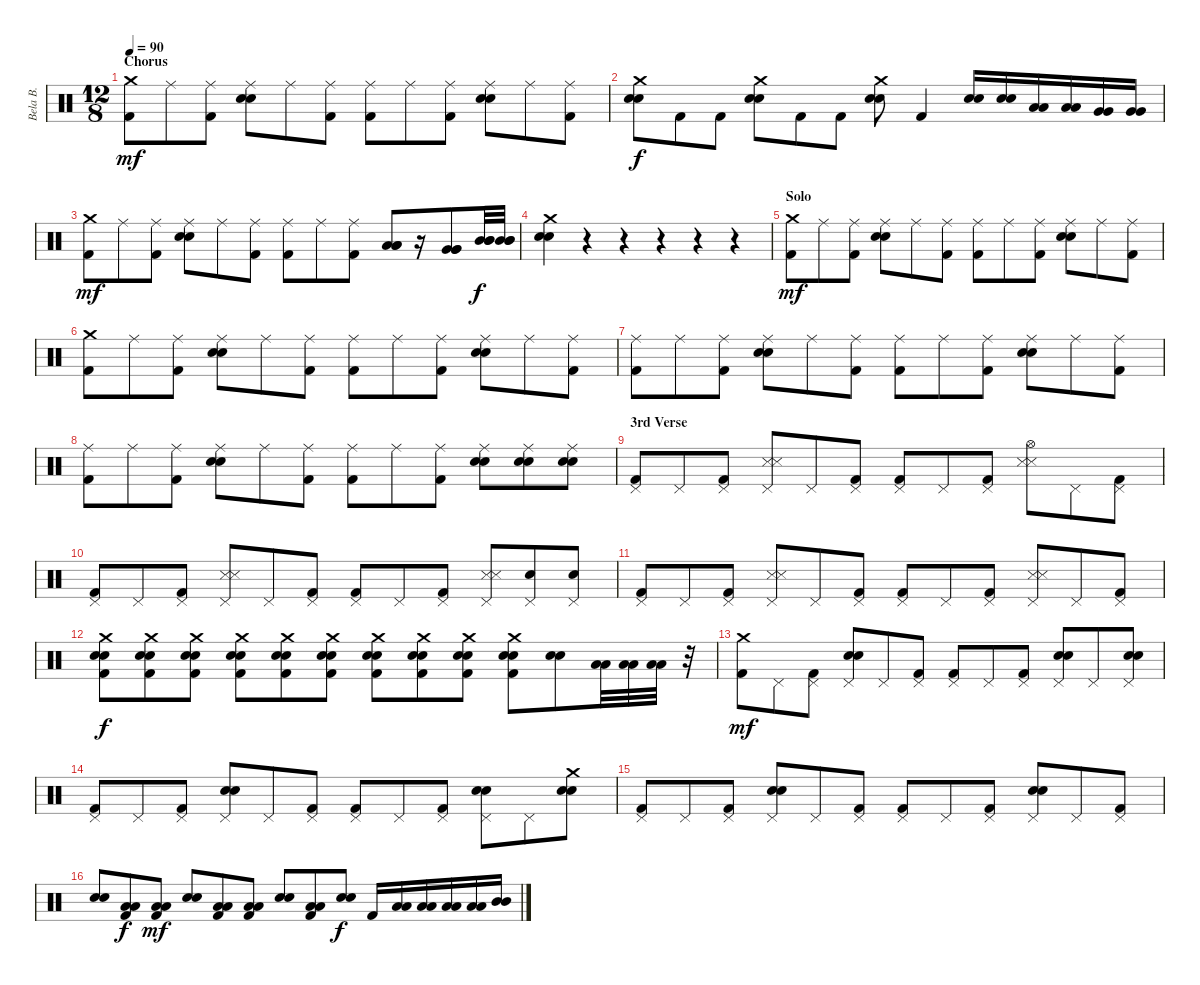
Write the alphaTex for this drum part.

\track ("Bela B." "Bela B.") {instrument percussion}
\staff {score}
\articulation defaults
\ts (12 8)
\section ("" "Chorus")
\tempo 90
\clef neutral
\ks c
("Crash medium (hit)" "Kick (hit) 2").8{dy mf} "Ride (middle)".8 ("Ride (middle)" "Kick (hit) 2").8 ("Ride (middle)" "Electric Snare (hit)" "Snare (hit) 2").8 "Ride (middle)".8 ("Ride (middle)" "Kick (hit) 2").8 ("Ride (middle)" "Kick (hit) 2").8 "Ride (middle)".8 ("Ride (middle)" "Kick (hit) 2").8 ("Ride (middle)" "Electric Snare (hit)" "Snare (hit) 2").8 "Ride (middle)".8 ("Ride (middle)" "Kick (hit) 2").8 |
("Crash medium (hit)" "Electric Snare (hit)" "Snare (hit) 2").8{dy f} "Kick (hit) 2".8 "Kick (hit) 2".8 ("Crash medium (hit)" "Electric Snare (hit)" "Snare (hit) 2").8 "Kick (hit) 2".8 "Kick (hit) 2".8 ("Crash medium (hit)" "Electric Snare (hit)" "Snare (hit) 2").8 "Kick (hit) 2".4 ("Electric Snare (hit)" "Snare (hit) 2").16 ("Electric Snare (hit)" "Snare (hit) 2").16 ("Low Tom (hit)" "Low Tom (hit)").16 ("Low Tom (hit)" "Low Tom (hit)").16 ("Very Low Tom (hit)" "Very Low Tom (hit)").16 ("Very Low Tom (hit)" "Very Low Tom (hit)").16 |
("Crash medium (hit)" "Kick (hit) 2").8{dy mf} "Ride (middle)".8 ("Ride (middle)" "Kick (hit) 2").8 ("Ride (middle)" "Electric Snare (hit)" "Snare (hit) 2").8 "Ride (middle)".8 ("Ride (middle)" "Kick (hit) 2").8 ("Ride (middle)" "Kick (hit) 2").8 "Ride (middle)".8 ("Ride (middle)" "Kick (hit) 2").8 ("Low Tom (hit)" "Low Tom (hit)" "Low Tom (hit)").8 r.16 ("Very Low Tom (hit)" "Very Low Tom (hit)" "Very Low Tom (hit)").8 ("Mid Tom (hit)" "Mid Tom (hit)" "Mid Tom (hit)").32{dy f} ("Mid Tom (hit)" "Mid Tom (hit)" "Mid Tom (hit)").32 |
("Crash medium (hit)" "Electric Snare (hit)" "Snare (hit) 2").4 r.4 r.4 r.4 r.4 r.4 |
\section ("" "Solo")
("Crash medium (hit)" "Kick (hit) 2").8{dy mf} "Ride (middle)".8 ("Ride (middle)" "Kick (hit) 2").8 ("Ride (middle)" "Electric Snare (hit)" "Snare (hit) 2").8 "Ride (middle)".8 ("Ride (middle)" "Kick (hit) 2").8 ("Ride (middle)" "Kick (hit) 2").8 "Ride (middle)".8 ("Ride (middle)" "Kick (hit) 2").8 ("Ride (middle)" "Electric Snare (hit)" "Snare (hit) 2").8 "Ride (middle)".8 ("Ride (middle)" "Kick (hit) 2").8 |
("Crash medium (hit)" "Kick (hit) 2").8 "Ride (middle)".8 ("Ride (middle)" "Kick (hit) 2").8 ("Ride (middle)" "Electric Snare (hit)" "Snare (hit) 2").8 "Ride (middle)".8 ("Ride (middle)" "Kick (hit) 2").8 ("Ride (middle)" "Kick (hit) 2").8 "Ride (middle)".8 ("Ride (middle)" "Kick (hit) 2").8 ("Ride (middle)" "Electric Snare (hit)" "Snare (hit) 2").8 "Ride (middle)".8 ("Ride (middle)" "Kick (hit) 2").8 |
("Ride (middle)" "Kick (hit) 2").8 "Ride (middle)".8 ("Ride (middle)" "Kick (hit) 2").8 ("Ride (middle)" "Electric Snare (hit)" "Snare (hit) 2").8 "Ride (middle)".8 ("Ride (middle)" "Kick (hit) 2").8 ("Ride (middle)" "Kick (hit) 2").8 "Ride (middle)".8 ("Ride (middle)" "Kick (hit) 2").8 ("Ride (middle)" "Electric Snare (hit)" "Snare (hit) 2").8 "Ride (middle)".8 ("Ride (middle)" "Kick (hit) 2").8 |
("Ride (middle)" "Kick (hit) 2").8 "Ride (middle)".8 ("Ride (middle)" "Kick (hit) 2").8 ("Ride (middle)" "Electric Snare (hit)" "Snare (hit) 2").8 "Ride (middle)".8 ("Ride (middle)" "Kick (hit) 2").8 ("Ride (middle)" "Kick (hit) 2").8 "Ride (middle)".8 ("Ride (middle)" "Kick (hit) 2").8 ("Ride (middle)" "Electric Snare (hit)" "Snare (hit) 2").8 ("Ride (middle)" "Electric Snare (hit)" "Snare (hit) 2").8 ("Ride (middle)" "Electric Snare (hit)" "Snare (hit) 2").8 |
\section ("" "3rd Verse")
("Pedal Hi-Hat (hit)" "Kick (hit) 2").8 "Pedal Hi-Hat (hit)".8 ("Pedal Hi-Hat (hit)" "Kick (hit) 2").8 ("Pedal Hi-Hat (hit)" "Snare (side stick) 3" "Snare (side stick) 3").8 "Pedal Hi-Hat (hit)".8 ("Pedal Hi-Hat (hit)" "Kick (hit) 2").8 ("Pedal Hi-Hat (hit)" "Kick (hit) 2").8 "Pedal Hi-Hat (hit)".8 ("Pedal Hi-Hat (hit)" "Kick (hit) 2").8 ("Hi-Hat (open)" "Snare (side stick) 3" "Snare (side stick) 3").8 "Pedal Hi-Hat (hit)".8 ("Pedal Hi-Hat (hit)" "Kick (hit) 2").8 |
("Pedal Hi-Hat (hit)" "Kick (hit) 2").8 "Pedal Hi-Hat (hit)".8 ("Pedal Hi-Hat (hit)" "Kick (hit) 2").8 ("Pedal Hi-Hat (hit)" "Snare (side stick) 3" "Snare (side stick) 3").8 "Pedal Hi-Hat (hit)".8 ("Pedal Hi-Hat (hit)" "Kick (hit) 2").8 ("Pedal Hi-Hat (hit)" "Kick (hit) 2").8 "Pedal Hi-Hat (hit)".8 ("Pedal Hi-Hat (hit)" "Kick (hit) 2").8 ("Pedal Hi-Hat (hit)" "Snare (side stick) 3" "Snare (side stick) 3").8 ("Pedal Hi-Hat (hit)" "Snare (hit) 2").8 ("Pedal Hi-Hat (hit)" "Snare (hit) 2").8 |
("Pedal Hi-Hat (hit)" "Kick (hit) 2").8 "Pedal Hi-Hat (hit)".8 ("Pedal Hi-Hat (hit)" "Kick (hit) 2").8 ("Pedal Hi-Hat (hit)" "Snare (side stick) 3" "Snare (side stick) 3").8 "Pedal Hi-Hat (hit)".8 ("Pedal Hi-Hat (hit)" "Kick (hit) 2").8 ("Pedal Hi-Hat (hit)" "Kick (hit) 2").8 "Pedal Hi-Hat (hit)".8 ("Pedal Hi-Hat (hit)" "Kick (hit) 2").8 ("Pedal Hi-Hat (hit)" "Snare (side stick) 3" "Snare (side stick) 3").8 "Pedal Hi-Hat (hit)".8 ("Pedal Hi-Hat (hit)" "Kick (hit) 2").8 |
("Crash medium (hit)" "Electric Snare (hit)" "Snare (hit) 2" "Kick (hit) 2").8{dy f} ("Crash medium (hit)" "Electric Snare (hit)" "Snare (hit) 2" "Kick (hit) 2").8 ("Crash medium (hit)" "Electric Snare (hit)" "Snare (hit) 2" "Kick (hit) 2").8 ("Crash medium (hit)" "Electric Snare (hit)" "Snare (hit) 2" "Kick (hit) 2").8 ("Crash medium (hit)" "Electric Snare (hit)" "Snare (hit) 2" "Kick (hit) 2").8 ("Crash medium (hit)" "Electric Snare (hit)" "Snare (hit) 2" "Kick (hit) 2").8 ("Crash medium (hit)" "Electric Snare (hit)" "Snare (hit) 2" "Kick (hit) 2").8 ("Crash medium (hit)" "Electric Snare (hit)" "Snare (hit) 2" "Kick (hit) 2").8 ("Crash medium (hit)" "Electric Snare (hit)" "Snare (hit) 2" "Kick (hit) 2").8 ("Crash medium (hit)" "Electric Snare (hit)" "Snare (hit) 2" "Kick (hit) 2").8 ("Electric Snare (hit)" "Snare (hit) 2").8 ("Low Tom (hit)" "Low Tom (hit)").32 ("Low Tom (hit)" "Low Tom (hit)").32 ("Low Tom (hit)" "Low Tom (hit)").32 r.32 |
("Crash medium (hit)" "Kick (hit) 2").8{dy mf} "Pedal Hi-Hat (hit)".8 ("Pedal Hi-Hat (hit)" "Kick (hit) 2").8 ("Pedal Hi-Hat (hit)" "Electric Snare (hit)" "Snare (hit) 2").8 "Pedal Hi-Hat (hit)".8 ("Pedal Hi-Hat (hit)" "Kick (hit) 2").8 ("Pedal Hi-Hat (hit)" "Kick (hit) 2").8 "Pedal Hi-Hat (hit)".8 ("Pedal Hi-Hat (hit)" "Kick (hit) 2").8 ("Pedal Hi-Hat (hit)" "Electric Snare (hit)" "Snare (hit) 2").8 "Pedal Hi-Hat (hit)".8 ("Pedal Hi-Hat (hit)" "Electric Snare (hit)" "Snare (hit) 2").8 |
("Pedal Hi-Hat (hit)" "Kick (hit) 2").8 "Pedal Hi-Hat (hit)".8 ("Pedal Hi-Hat (hit)" "Kick (hit) 2").8 ("Pedal Hi-Hat (hit)" "Electric Snare (hit)" "Snare (hit) 2").8 "Pedal Hi-Hat (hit)".8 ("Pedal Hi-Hat (hit)" "Kick (hit) 2").8 ("Pedal Hi-Hat (hit)" "Kick (hit) 2").8 "Pedal Hi-Hat (hit)".8 ("Pedal Hi-Hat (hit)" "Kick (hit) 2").8 ("Pedal Hi-Hat (hit)" "Electric Snare (hit)" "Snare (hit) 2").8 "Pedal Hi-Hat (hit)".8 ("Crash medium (hit)" "Electric Snare (hit)" "Snare (hit) 2").8 |
("Pedal Hi-Hat (hit)" "Kick (hit) 2").8 "Pedal Hi-Hat (hit)".8 ("Pedal Hi-Hat (hit)" "Kick (hit) 2").8 ("Pedal Hi-Hat (hit)" "Electric Snare (hit)" "Snare (hit) 2").8 "Pedal Hi-Hat (hit)".8 ("Pedal Hi-Hat (hit)" "Kick (hit) 2").8 ("Pedal Hi-Hat (hit)" "Kick (hit) 2").8 "Pedal Hi-Hat (hit)".8 ("Pedal Hi-Hat (hit)" "Kick (hit) 2").8 ("Pedal Hi-Hat (hit)" "Electric Snare (hit)" "Snare (hit) 2").8 "Pedal Hi-Hat (hit)".8 ("Pedal Hi-Hat (hit)" "Kick (hit) 2").8 |
("Electric Snare (hit)" "Snare (hit) 2").8 ("Low Tom (hit)" "Low Tom (hit)" "Kick (hit) 2").8{dy f} ("Low Tom (hit)" "Low Tom (hit)" "Kick (hit) 2").8{dy mf} ("Electric Snare (hit)" "Snare (hit) 2").8 ("Low Tom (hit)" "Low Tom (hit)" "Kick (hit) 2").8 ("Low Tom (hit)" "Low Tom (hit)" "Kick (hit) 2").8 ("Electric Snare (hit)" "Snare (hit) 2").8 ("Low Tom (hit)" "Low Tom (hit)" "Kick (hit) 2").8 ("Electric Snare (hit)" "Snare (hit) 2").8{dy f} "Kick (hit) 2".16 ("Low Floor Tom (hit)" "Low Floor Tom (hit)").16 ("Low Floor Tom (hit)" "Low Floor Tom (hit)").16 ("Low Floor Tom (hit)" "Low Floor Tom (hit)").16 ("Low Tom (hit)" "Low Tom (hit)").16 ("Mid Tom (hit)" "Mid Tom (hit)").16
